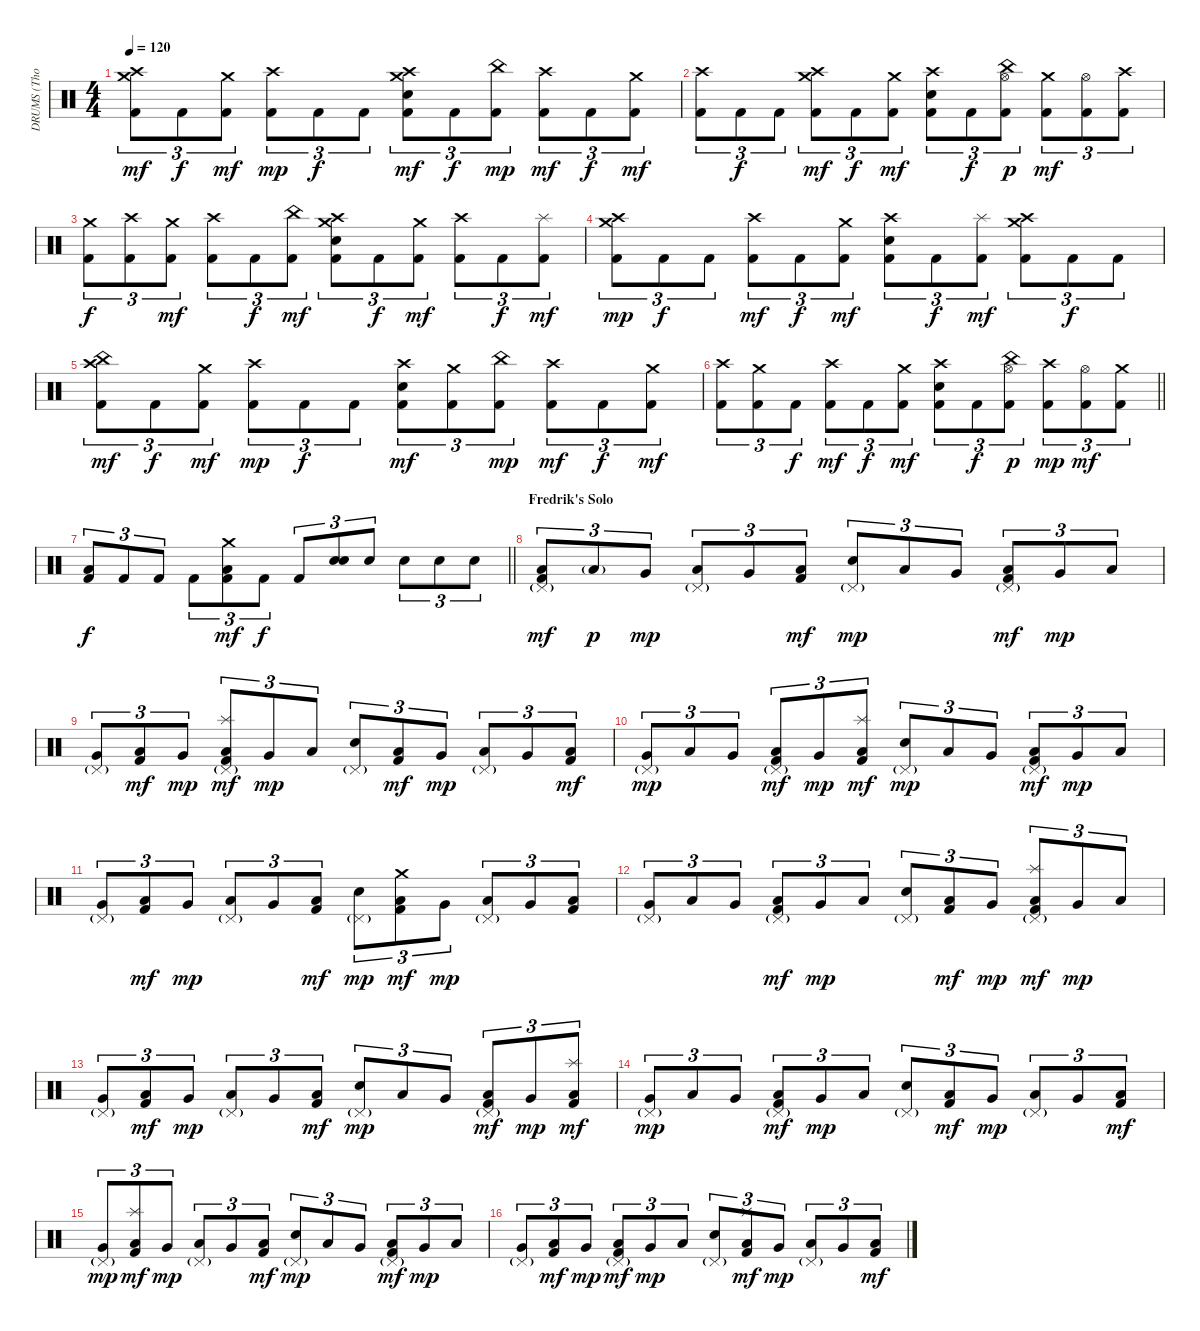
\track ("DRUMS (Thomas Haake)" "DRUMS (Tho") {instrument percussion}
\staff {score}
\articulation defaults
\ts (4 4)
\tempo 120
\clef neutral
\ks c
("Crash medium (hit)" "Crash high (hit)" "Kick (hit) 2").8{tu (3 2) dy mf} "Kick (hit) 2".8{tu (3 2) dy f} ("Crash medium (hit)" "Kick (hit) 2").8{tu (3 2) dy mf} ("Crash high (hit)" "Kick (hit) 2").8{tu (3 2) dy mp} "Kick (hit) 2".8{tu (3 2) dy f} "Kick (hit) 2".8{tu (3 2)} ("Crash medium (hit)" "Crash high (hit)" "Electric Snare (hit)" "Kick (hit) 2").8{tu (3 2) dy mf} "Kick (hit) 2".8{tu (3 2) dy f} ("China (hit)" "Kick (hit) 2").8{tu (3 2) dy mp} ("Crash high (hit)" "Kick (hit) 2").8{tu (3 2) dy mf} "Kick (hit) 2".8{tu (3 2) dy f} ("Crash medium (hit)" "Kick (hit) 2").8{tu (3 2) dy mf} |
("Crash high (hit)" "Kick (hit) 2").8{tu (3 2)} "Kick (hit) 2".8{tu (3 2) dy f} "Kick (hit) 2".8{tu (3 2)} ("Crash medium (hit)" "Crash high (hit)" "Kick (hit) 2").8{tu (3 2) dy mf} "Kick (hit) 2".8{tu (3 2) dy f} ("Crash medium (hit)" "Kick (hit) 2").8{tu (3 2) dy mf} ("Crash high (hit)" "Electric Snare (hit)" "Kick (hit) 2").8{tu (3 2)} "Kick (hit) 2".8{tu (3 2) dy f} ("China (hit)" "Hi-Hat (open)" "Kick (hit) 2").8{tu (3 2) dy p} ("Crash medium (hit)" "Kick (hit) 2").8{tu (3 2) dy mf} ("Hi-Hat (open)" "Kick (hit) 2").8{tu (3 2)} ("Crash high (hit)" "Kick (hit) 2").8{tu (3 2)} |
("Crash medium (hit)" "Kick (hit) 2").8{tu (3 2) dy f} ("Crash high (hit)" "Kick (hit) 2").8{tu (3 2)} ("Crash medium (hit)" "Kick (hit) 2").8{tu (3 2) dy mf} ("Crash high (hit)" "Kick (hit) 2").8{tu (3 2)} "Kick (hit) 2".8{tu (3 2) dy f} ("China (hit)" "Kick (hit) 2").8{tu (3 2) dy mf} ("Crash medium (hit)" "Crash high (hit)" "Electric Snare (hit)" "Kick (hit) 2").8{tu (3 2)} "Kick (hit) 2".8{tu (3 2) dy f} ("Crash medium (hit)" "Kick (hit) 2").8{tu (3 2) dy mf} ("Crash high (hit)" "Kick (hit) 2").8{tu (3 2)} "Kick (hit) 2".8{tu (3 2) dy f} ("Splash (hit)" "Kick (hit) 2").8{tu (3 2) dy mf} |
("Crash medium (hit)" "Crash high (hit)" "Kick (hit) 2").8{tu (3 2) dy mp} "Kick (hit) 2".8{tu (3 2) dy f} "Kick (hit) 2".8{tu (3 2)} ("Crash high (hit)" "Kick (hit) 2").8{tu (3 2) dy mf} "Kick (hit) 2".8{tu (3 2) dy f} ("Crash medium (hit)" "Kick (hit) 2").8{tu (3 2) dy mf} ("Crash high (hit)" "Electric Snare (hit)" "Kick (hit) 2").8{tu (3 2)} "Kick (hit) 2".8{tu (3 2) dy f} ("Splash (hit)" "Kick (hit) 2").8{tu (3 2) dy mf} ("Crash medium (hit)" "Crash high (hit)" "Kick (hit) 2").8{tu (3 2)} "Kick (hit) 2".8{tu (3 2) dy f} "Kick (hit) 2".8{tu (3 2)} |
("China (hit)" "Crash high (hit)" "Kick (hit) 2").8{tu (3 2) dy mf} "Kick (hit) 2".8{tu (3 2) dy f} ("Crash medium (hit)" "Kick (hit) 2").8{tu (3 2) dy mf} ("Crash high (hit)" "Kick (hit) 2").8{tu (3 2) dy mp} "Kick (hit) 2".8{tu (3 2) dy f} "Kick (hit) 2".8{tu (3 2)} ("Crash high (hit)" "Electric Snare (hit)" "Kick (hit) 2").8{tu (3 2) dy mf} ("Crash medium (hit)" "Kick (hit) 2").8{tu (3 2)} ("China (hit)" "Kick (hit) 2").8{tu (3 2) dy mp} ("Crash high (hit)" "Kick (hit) 2").8{tu (3 2) dy mf} "Kick (hit) 2".8{tu (3 2) dy f} ("Crash medium (hit)" "Kick (hit) 2").8{tu (3 2) dy mf} |
\barLineRight lightlight
("Crash high (hit)" "Kick (hit) 2").8{tu (3 2)} ("Crash medium (hit)" "Kick (hit) 2").8{tu (3 2)} "Kick (hit) 2".8{tu (3 2) dy f} ("Crash high (hit)" "Kick (hit) 2").8{tu (3 2) dy mf} "Kick (hit) 2".8{tu (3 2) dy f} ("Crash medium (hit)" "Kick (hit) 2").8{tu (3 2) dy mf} ("Crash high (hit)" "Electric Snare (hit)" "Kick (hit) 2").8{tu (3 2)} "Kick (hit) 2".8{tu (3 2) dy f} ("China (hit)" "Hi-Hat (open)" "Kick (hit) 2").8{tu (3 2) dy p} ("Crash high (hit)" "Kick (hit) 2").8{tu (3 2) dy mp} ("Hi-Hat (open)" "Kick (hit) 2").8{tu (3 2) dy mf} ("Crash medium (hit)" "Kick (hit) 2").8{tu (3 2)} |
\barLineRight lightlight
("Low Floor Tom (hit)" "Kick (hit) 2").8{tu (3 2) dy f} "Kick (hit) 2".8{tu (3 2)} "Kick (hit) 2".8{tu (3 2)} "Kick (hit) 2".8{tu (3 2)} ("Crash medium (hit)" "Low Floor Tom (hit)" "Kick (hit) 2").8{tu (3 2) dy mf} "Kick (hit) 2".8{tu (3 2) dy f} "Kick (hit) 2".8{tu (3 2)} ("Electric Snare (hit)" "Electric Snare (hit)").8{tu (3 2) bd 120} "Electric Snare (hit)".8{tu (3 2)} "Electric Snare (hit)".8{tu (3 2)} "Electric Snare (hit)".8{tu (3 2)} "Electric Snare (hit)".8{tu (3 2)} |
\section ("" "Fredrik's Solo")
("Pedal Hi-Hat (hit)"{g} "Low Floor Tom (hit)" "Kick (hit) 2").8{tu (3 2) dy mf} "Low Floor Tom (hit)"{g}.8{tu (3 2) dy p} "Very Low Tom (hit)".8{tu (3 2) dy mp} ("Pedal Hi-Hat (hit)"{g} "Low Floor Tom (hit)").8{tu (3 2)} "Very Low Tom (hit)".8{tu (3 2)} ("Low Floor Tom (hit)" "Kick (hit) 2").8{tu (3 2) dy mf} ("Pedal Hi-Hat (hit)"{g} "Electric Snare (hit)").8{tu (3 2) dy mp} "Low Floor Tom (hit)".8{tu (3 2)} "Very Low Tom (hit)".8{tu (3 2)} ("Pedal Hi-Hat (hit)"{g} "Low Floor Tom (hit)" "Kick (hit) 2").8{tu (3 2) dy mf} "Very Low Tom (hit)".8{tu (3 2) dy mp} "Low Floor Tom (hit)".8{tu (3 2)} |
("Pedal Hi-Hat (hit)"{g} "Very Low Tom (hit)").8{tu (3 2)} ("Low Floor Tom (hit)" "Kick (hit) 2").8{tu (3 2) dy mf} "Very Low Tom (hit)".8{tu (3 2) dy mp} ("Pedal Hi-Hat (hit)"{g} "Splash (hit)" "Low Floor Tom (hit)" "Kick (hit) 2").8{tu (3 2) dy mf} "Very Low Tom (hit)".8{tu (3 2) dy mp} "Low Floor Tom (hit)".8{tu (3 2)} ("Pedal Hi-Hat (hit)"{g} "Electric Snare (hit)").8{tu (3 2)} ("Low Floor Tom (hit)" "Kick (hit) 2").8{tu (3 2) dy mf} "Very Low Tom (hit)".8{tu (3 2) dy mp} ("Pedal Hi-Hat (hit)"{g} "Low Floor Tom (hit)").8{tu (3 2)} "Very Low Tom (hit)".8{tu (3 2)} ("Low Floor Tom (hit)" "Kick (hit) 2").8{tu (3 2) dy mf} |
("Pedal Hi-Hat (hit)"{g} "Very Low Tom (hit)").8{tu (3 2) dy mp} "Low Floor Tom (hit)".8{tu (3 2)} "Very Low Tom (hit)".8{tu (3 2)} ("Pedal Hi-Hat (hit)"{g} "Low Floor Tom (hit)" "Kick (hit) 2").8{tu (3 2) dy mf} "Very Low Tom (hit)".8{tu (3 2) dy mp} ("Splash (hit)" "Low Floor Tom (hit)" "Kick (hit) 2").8{tu (3 2) dy mf} ("Pedal Hi-Hat (hit)"{g} "Electric Snare (hit)").8{tu (3 2) dy mp} "Low Floor Tom (hit)".8{tu (3 2)} "Very Low Tom (hit)".8{tu (3 2)} ("Pedal Hi-Hat (hit)"{g} "Low Floor Tom (hit)" "Kick (hit) 2").8{tu (3 2) dy mf} "Very Low Tom (hit)".8{tu (3 2) dy mp} "Low Floor Tom (hit)".8{tu (3 2)} |
("Pedal Hi-Hat (hit)"{g} "Very Low Tom (hit)").8{tu (3 2)} ("Low Floor Tom (hit)" "Kick (hit) 2").8{tu (3 2) dy mf} "Very Low Tom (hit)".8{tu (3 2) dy mp} ("Pedal Hi-Hat (hit)"{g} "Low Floor Tom (hit)").8{tu (3 2)} "Very Low Tom (hit)".8{tu (3 2)} ("Low Floor Tom (hit)" "Kick (hit) 2").8{tu (3 2) dy mf} ("Pedal Hi-Hat (hit)"{g} "Electric Snare (hit)").8{tu (3 2) dy mp} ("Crash medium (hit)" "Low Floor Tom (hit)" "Kick (hit) 2").8{tu (3 2) dy mf} "Very Low Tom (hit)".8{tu (3 2) dy mp} ("Pedal Hi-Hat (hit)"{g} "Low Floor Tom (hit)").8{tu (3 2)} "Very Low Tom (hit)".8{tu (3 2)} ("Low Floor Tom (hit)" "Kick (hit) 2").8{tu (3 2)} |
("Pedal Hi-Hat (hit)"{g} "Very Low Tom (hit)").8{tu (3 2)} "Low Floor Tom (hit)".8{tu (3 2)} "Very Low Tom (hit)".8{tu (3 2)} ("Pedal Hi-Hat (hit)"{g} "Low Floor Tom (hit)" "Kick (hit) 2").8{tu (3 2) dy mf} "Very Low Tom (hit)".8{tu (3 2) dy mp} "Low Floor Tom (hit)".8{tu (3 2)} ("Pedal Hi-Hat (hit)"{g} "Electric Snare (hit)").8{tu (3 2)} ("Low Floor Tom (hit)" "Kick (hit) 2").8{tu (3 2) dy mf} "Very Low Tom (hit)".8{tu (3 2) dy mp} ("Pedal Hi-Hat (hit)"{g} "Splash (hit)" "Low Floor Tom (hit)" "Kick (hit) 2").8{tu (3 2) dy mf} "Very Low Tom (hit)".8{tu (3 2) dy mp} "Low Floor Tom (hit)".8{tu (3 2)} |
("Pedal Hi-Hat (hit)"{g} "Very Low Tom (hit)").8{tu (3 2)} ("Low Floor Tom (hit)" "Kick (hit) 2").8{tu (3 2) dy mf} "Very Low Tom (hit)".8{tu (3 2) dy mp} ("Pedal Hi-Hat (hit)"{g} "Low Floor Tom (hit)").8{tu (3 2)} "Very Low Tom (hit)".8{tu (3 2)} ("Low Floor Tom (hit)" "Kick (hit) 2").8{tu (3 2) dy mf} ("Pedal Hi-Hat (hit)"{g} "Electric Snare (hit)").8{tu (3 2) dy mp} "Low Floor Tom (hit)".8{tu (3 2)} "Very Low Tom (hit)".8{tu (3 2)} ("Pedal Hi-Hat (hit)"{g} "Low Floor Tom (hit)" "Kick (hit) 2").8{tu (3 2) dy mf} "Very Low Tom (hit)".8{tu (3 2) dy mp} ("Splash (hit)" "Low Floor Tom (hit)" "Kick (hit) 2").8{tu (3 2) dy mf} |
("Pedal Hi-Hat (hit)"{g} "Very Low Tom (hit)").8{tu (3 2) dy mp} "Low Floor Tom (hit)".8{tu (3 2)} "Very Low Tom (hit)".8{tu (3 2)} ("Pedal Hi-Hat (hit)"{g} "Low Floor Tom (hit)" "Kick (hit) 2").8{tu (3 2) dy mf} "Very Low Tom (hit)".8{tu (3 2) dy mp} "Low Floor Tom (hit)".8{tu (3 2)} ("Pedal Hi-Hat (hit)"{g} "Electric Snare (hit)").8{tu (3 2)} ("Low Floor Tom (hit)" "Kick (hit) 2").8{tu (3 2) dy mf} "Very Low Tom (hit)".8{tu (3 2) dy mp} ("Pedal Hi-Hat (hit)"{g} "Low Floor Tom (hit)").8{tu (3 2)} "Very Low Tom (hit)".8{tu (3 2)} ("Low Floor Tom (hit)" "Kick (hit) 2").8{tu (3 2) dy mf} |
("Pedal Hi-Hat (hit)"{g} "Very Low Tom (hit)").8{tu (3 2) dy mp} ("Splash (hit)" "Low Floor Tom (hit)" "Kick (hit) 2").8{tu (3 2) dy mf} "Very Low Tom (hit)".8{tu (3 2) dy mp} ("Pedal Hi-Hat (hit)"{g} "Low Floor Tom (hit)").8{tu (3 2)} "Very Low Tom (hit)".8{tu (3 2)} ("Low Floor Tom (hit)" "Kick (hit) 2").8{tu (3 2) dy mf} ("Pedal Hi-Hat (hit)"{g} "Electric Snare (hit)").8{tu (3 2) dy mp} "Low Floor Tom (hit)".8{tu (3 2)} "Very Low Tom (hit)".8{tu (3 2)} ("Pedal Hi-Hat (hit)"{g} "Low Floor Tom (hit)" "Kick (hit) 2").8{tu (3 2) dy mf} "Very Low Tom (hit)".8{tu (3 2) dy mp} "Low Floor Tom (hit)".8{tu (3 2)} |
("Pedal Hi-Hat (hit)"{g} "Very Low Tom (hit)").8{tu (3 2)} ("Low Floor Tom (hit)" "Kick (hit) 2").8{tu (3 2) dy mf} "Very Low Tom (hit)".8{tu (3 2) dy mp} ("Pedal Hi-Hat (hit)"{g} "Low Floor Tom (hit)" "Kick (hit) 2").8{tu (3 2) dy mf} "Very Low Tom (hit)".8{tu (3 2) dy mp} "Low Floor Tom (hit)".8{tu (3 2)} ("Pedal Hi-Hat (hit)"{g} "Electric Snare (hit)").8{tu (3 2)} ("Splash (hit)" "Low Floor Tom (hit)" "Kick (hit) 2").8{tu (3 2) dy mf} "Very Low Tom (hit)".8{tu (3 2) dy mp} ("Pedal Hi-Hat (hit)"{g} "Low Floor Tom (hit)").8{tu (3 2)} "Very Low Tom (hit)".8{tu (3 2)} ("Low Floor Tom (hit)" "Kick (hit) 2").8{tu (3 2) dy mf}
